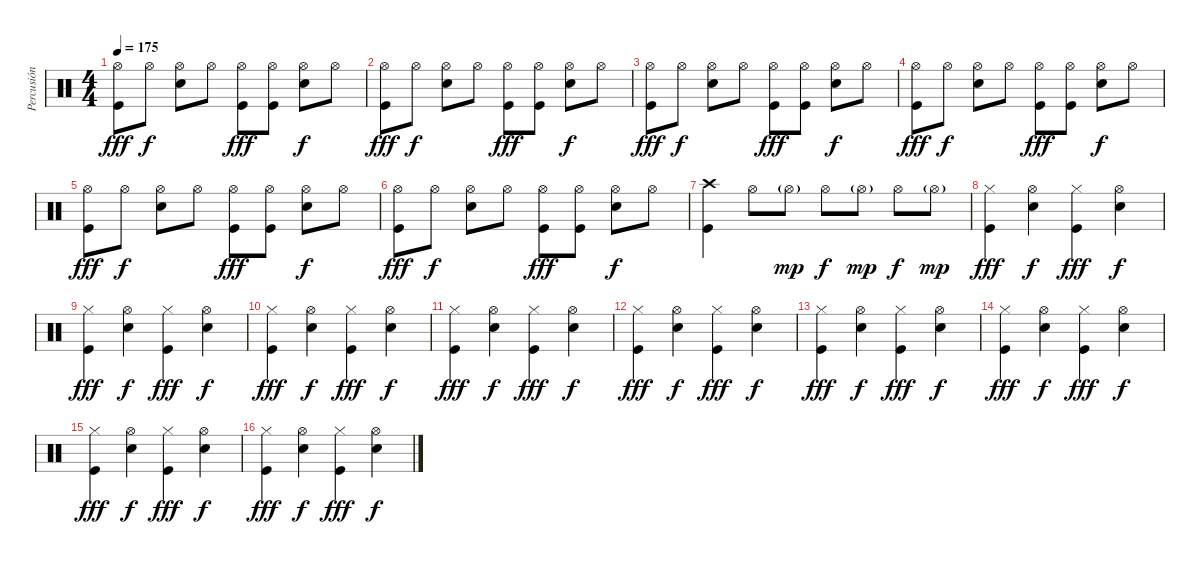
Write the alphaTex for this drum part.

\track ("Percusión" "Percusión") {instrument percussion}
\staff {score}
\articulation defaults
\ts (4 4)
\tempo 175
\clef neutral
\ks c
("Hi-Hat (open)" "Kick (hit)").8{dy fff} "Hi-Hat (open)".8{dy f} ("Hi-Hat (open)" "Electric Snare (hit)").8 "Hi-Hat (open)".8 ("Hi-Hat (open)" "Kick (hit)").8{dy fff} ("Hi-Hat (open)" "Kick (hit)").8 ("Hi-Hat (open)" "Electric Snare (hit)").8{dy f} "Hi-Hat (open)".8 |
("Hi-Hat (open)" "Kick (hit)").8{dy fff} "Hi-Hat (open)".8{dy f} ("Hi-Hat (open)" "Electric Snare (hit)").8 "Hi-Hat (open)".8 ("Hi-Hat (open)" "Kick (hit)").8{dy fff} ("Hi-Hat (open)" "Kick (hit)").8 ("Hi-Hat (open)" "Electric Snare (hit)").8{dy f} "Hi-Hat (open)".8 |
("Hi-Hat (open)" "Kick (hit)").8{dy fff} "Hi-Hat (open)".8{dy f} ("Hi-Hat (open)" "Electric Snare (hit)").8 "Hi-Hat (open)".8 ("Hi-Hat (open)" "Kick (hit)").8{dy fff} ("Hi-Hat (open)" "Kick (hit)").8 ("Hi-Hat (open)" "Electric Snare (hit)").8{dy f} "Hi-Hat (open)".8 |
("Hi-Hat (open)" "Kick (hit)").8{dy fff} "Hi-Hat (open)".8{dy f} ("Hi-Hat (open)" "Electric Snare (hit)").8 "Hi-Hat (open)".8 ("Hi-Hat (open)" "Kick (hit)").8{dy fff} ("Hi-Hat (open)" "Kick (hit)").8 ("Hi-Hat (open)" "Electric Snare (hit)").8{dy f} "Hi-Hat (open)".8 |
("Hi-Hat (open)" "Kick (hit)").8{dy fff} "Hi-Hat (open)".8{dy f} ("Hi-Hat (open)" "Electric Snare (hit)").8 "Hi-Hat (open)".8 ("Hi-Hat (open)" "Kick (hit)").8{dy fff} ("Hi-Hat (open)" "Kick (hit)").8 ("Hi-Hat (open)" "Electric Snare (hit)").8{dy f} "Hi-Hat (open)".8 |
("Hi-Hat (open)" "Kick (hit)").8{dy fff} "Hi-Hat (open)".8{dy f} ("Hi-Hat (open)" "Electric Snare (hit)").8 "Hi-Hat (open)".8 ("Hi-Hat (open)" "Kick (hit)").8{dy fff} ("Hi-Hat (open)" "Kick (hit)").8 ("Hi-Hat (open)" "Electric Snare (hit)").8{dy f} "Hi-Hat (open)".8 |
("Crash high (hit)" "Kick (hit)").4 "Hi-Hat (open)".8 "Hi-Hat (open)"{g}.8{dy mp} "Hi-Hat (open)".8{dy f} "Hi-Hat (open)"{g}.8{dy mp} "Hi-Hat (open)".8{dy f} "Hi-Hat (open)"{g}.8{dy mp} |
("Hi-Hat (closed)" "Kick (hit)").4{dy fff} ("Hi-Hat (open)" "Electric Snare (hit)").4{dy f} ("Hi-Hat (closed)" "Kick (hit)").4{dy fff} ("Hi-Hat (open)" "Electric Snare (hit)").4{dy f} |
("Hi-Hat (closed)" "Kick (hit)").4{dy fff} ("Hi-Hat (open)" "Electric Snare (hit)").4{dy f} ("Hi-Hat (closed)" "Kick (hit)").4{dy fff} ("Hi-Hat (open)" "Electric Snare (hit)").4{dy f} |
("Hi-Hat (closed)" "Kick (hit)").4{dy fff} ("Hi-Hat (open)" "Electric Snare (hit)").4{dy f} ("Hi-Hat (closed)" "Kick (hit)").4{dy fff} ("Hi-Hat (open)" "Electric Snare (hit)").4{dy f} |
("Hi-Hat (closed)" "Kick (hit)").4{dy fff} ("Hi-Hat (open)" "Electric Snare (hit)").4{dy f} ("Hi-Hat (closed)" "Kick (hit)").4{dy fff} ("Hi-Hat (open)" "Electric Snare (hit)").4{dy f} |
("Hi-Hat (closed)" "Kick (hit)").4{dy fff} ("Hi-Hat (open)" "Electric Snare (hit)").4{dy f} ("Hi-Hat (closed)" "Kick (hit)").4{dy fff} ("Hi-Hat (open)" "Electric Snare (hit)").4{dy f} |
("Hi-Hat (closed)" "Kick (hit)").4{dy fff} ("Hi-Hat (open)" "Electric Snare (hit)").4{dy f} ("Hi-Hat (closed)" "Kick (hit)").4{dy fff} ("Hi-Hat (open)" "Electric Snare (hit)").4{dy f} |
("Hi-Hat (closed)" "Kick (hit)").4{dy fff} ("Hi-Hat (open)" "Electric Snare (hit)").4{dy f} ("Hi-Hat (closed)" "Kick (hit)").4{dy fff} ("Hi-Hat (open)" "Electric Snare (hit)").4{dy f} |
("Hi-Hat (closed)" "Kick (hit)").4{dy fff} ("Hi-Hat (open)" "Electric Snare (hit)").4{dy f} ("Hi-Hat (closed)" "Kick (hit)").4{dy fff} ("Hi-Hat (open)" "Electric Snare (hit)").4{dy f} |
("Hi-Hat (closed)" "Kick (hit)").4{dy fff} ("Hi-Hat (open)" "Electric Snare (hit)").4{dy f} ("Hi-Hat (closed)" "Kick (hit)").4{dy fff} ("Hi-Hat (open)" "Electric Snare (hit)").4{dy f}
